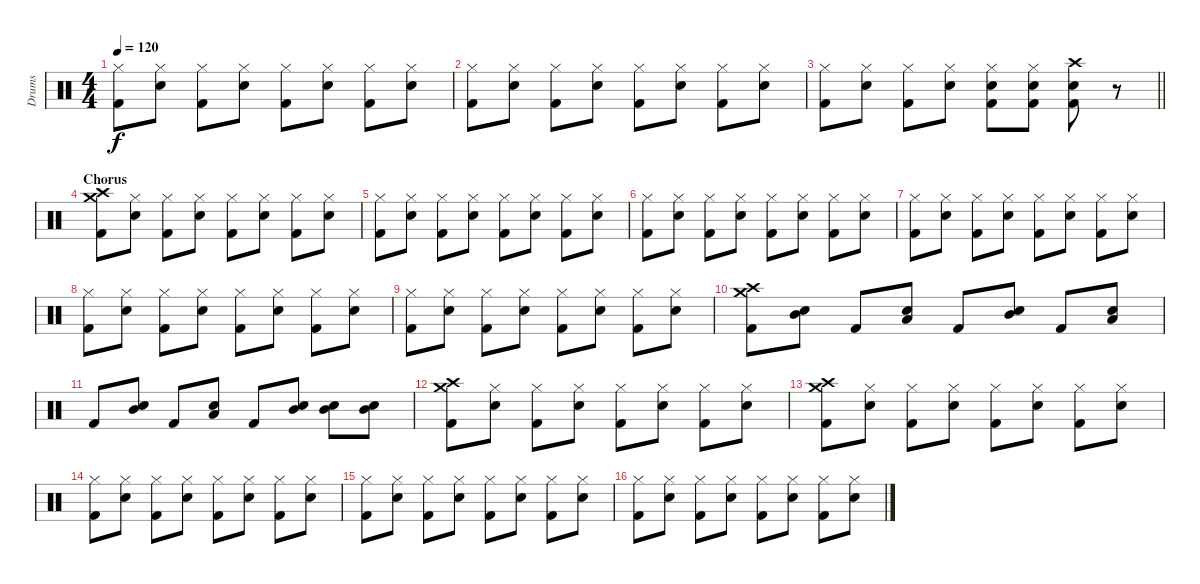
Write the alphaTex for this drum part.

\track ("Drums" "Drums") {instrument percussion}
\staff {score}
\articulation defaults
\ts (4 4)
\tempo 120
\clef neutral
\ks c
("Hi-Hat (closed)" "Kick (hit) 2").8{dy f} ("Hi-Hat (closed)" "Electric Snare (hit)").8 ("Hi-Hat (closed)" "Kick (hit) 2").8 ("Hi-Hat (closed)" "Electric Snare (hit)").8 ("Hi-Hat (closed)" "Kick (hit) 2").8 ("Hi-Hat (closed)" "Electric Snare (hit)").8 ("Hi-Hat (closed)" "Kick (hit) 2").8 ("Hi-Hat (closed)" "Electric Snare (hit)").8 |
("Hi-Hat (closed)" "Kick (hit) 2").8 ("Hi-Hat (closed)" "Electric Snare (hit)").8 ("Hi-Hat (closed)" "Kick (hit) 2").8 ("Hi-Hat (closed)" "Electric Snare (hit)").8 ("Hi-Hat (closed)" "Kick (hit) 2").8 ("Hi-Hat (closed)" "Electric Snare (hit)").8 ("Hi-Hat (closed)" "Kick (hit) 2").8 ("Hi-Hat (closed)" "Electric Snare (hit)").8 |
\barLineRight lightlight
("Hi-Hat (closed)" "Kick (hit) 2").8 ("Hi-Hat (closed)" "Electric Snare (hit)").8 ("Hi-Hat (closed)" "Kick (hit) 2").8 ("Hi-Hat (closed)" "Electric Snare (hit)").8 ("Hi-Hat (closed)" "Electric Snare (hit)" "Kick (hit) 2").8 ("Hi-Hat (closed)" "Electric Snare (hit)" "Kick (hit) 2").8 ("Crash high (hit)" "Electric Snare (hit)" "Kick (hit) 2").8 r.8 |
\section ("" "Chorus")
("Crash high (hit)" "Crash medium (hit)" "Kick (hit) 2").8 ("Hi-Hat (closed)" "Electric Snare (hit)").8 ("Hi-Hat (closed)" "Kick (hit) 2").8 ("Hi-Hat (closed)" "Electric Snare (hit)").8 ("Hi-Hat (closed)" "Kick (hit) 2").8 ("Hi-Hat (closed)" "Electric Snare (hit)").8 ("Hi-Hat (closed)" "Kick (hit) 2").8 ("Hi-Hat (closed)" "Electric Snare (hit)").8 |
("Hi-Hat (closed)" "Kick (hit) 2").8 ("Hi-Hat (closed)" "Electric Snare (hit)").8 ("Hi-Hat (closed)" "Kick (hit) 2").8 ("Hi-Hat (closed)" "Electric Snare (hit)").8 ("Hi-Hat (closed)" "Kick (hit) 2").8 ("Hi-Hat (closed)" "Electric Snare (hit)").8 ("Hi-Hat (closed)" "Kick (hit) 2").8 ("Hi-Hat (closed)" "Electric Snare (hit)").8 |
("Hi-Hat (closed)" "Kick (hit) 2").8 ("Hi-Hat (closed)" "Electric Snare (hit)").8 ("Hi-Hat (closed)" "Kick (hit) 2").8 ("Hi-Hat (closed)" "Electric Snare (hit)").8 ("Hi-Hat (closed)" "Kick (hit) 2").8 ("Hi-Hat (closed)" "Electric Snare (hit)").8 ("Hi-Hat (closed)" "Kick (hit) 2").8 ("Hi-Hat (closed)" "Electric Snare (hit)").8 |
("Hi-Hat (closed)" "Kick (hit) 2").8 ("Hi-Hat (closed)" "Electric Snare (hit)").8 ("Hi-Hat (closed)" "Kick (hit) 2").8 ("Hi-Hat (closed)" "Electric Snare (hit)").8 ("Hi-Hat (closed)" "Kick (hit) 2").8 ("Hi-Hat (closed)" "Electric Snare (hit)").8 ("Hi-Hat (closed)" "Kick (hit) 2").8 ("Hi-Hat (closed)" "Electric Snare (hit)").8 |
("Hi-Hat (closed)" "Kick (hit) 2").8 ("Hi-Hat (closed)" "Electric Snare (hit)").8 ("Hi-Hat (closed)" "Kick (hit) 2").8 ("Hi-Hat (closed)" "Electric Snare (hit)").8 ("Hi-Hat (closed)" "Kick (hit) 2").8 ("Hi-Hat (closed)" "Electric Snare (hit)").8 ("Hi-Hat (closed)" "Kick (hit) 2").8 ("Hi-Hat (closed)" "Electric Snare (hit)").8 |
("Hi-Hat (closed)" "Kick (hit) 2").8 ("Hi-Hat (closed)" "Electric Snare (hit)").8 ("Hi-Hat (closed)" "Kick (hit) 2").8 ("Hi-Hat (closed)" "Electric Snare (hit)").8 ("Hi-Hat (closed)" "Kick (hit) 2").8 ("Hi-Hat (closed)" "Electric Snare (hit)").8 ("Hi-Hat (closed)" "Kick (hit) 2").8 ("Hi-Hat (closed)" "Electric Snare (hit)").8 |
("Crash medium (hit)" "Crash high (hit)" "Kick (hit) 2").8 ("Mid Tom (hit)" "Electric Snare (hit)").8 "Kick (hit) 2".8 ("Low Tom (hit)" "Electric Snare (hit)").8 "Kick (hit) 2".8 ("Mid Tom (hit)" "Electric Snare (hit)").8 "Kick (hit) 2".8 ("Low Tom (hit)" "Electric Snare (hit)").8 |
"Kick (hit) 2".8 ("Mid Tom (hit)" "Electric Snare (hit)").8 "Kick (hit) 2".8 ("Low Tom (hit)" "Electric Snare (hit)").8 "Kick (hit) 2".8 ("Mid Tom (hit)" "Electric Snare (hit)").8 ("Mid Tom (hit)" "Electric Snare (hit)").8 ("Mid Tom (hit)" "Electric Snare (hit)").8 |
("Crash high (hit)" "Crash medium (hit)" "Kick (hit) 2").8 ("Hi-Hat (closed)" "Electric Snare (hit)").8 ("Hi-Hat (closed)" "Kick (hit) 2").8 ("Hi-Hat (closed)" "Electric Snare (hit)").8 ("Hi-Hat (closed)" "Kick (hit) 2").8 ("Hi-Hat (closed)" "Electric Snare (hit)").8 ("Hi-Hat (closed)" "Kick (hit) 2").8 ("Hi-Hat (closed)" "Electric Snare (hit)").8 |
("Crash high (hit)" "Crash medium (hit)" "Kick (hit) 2").8 ("Hi-Hat (closed)" "Electric Snare (hit)").8 ("Hi-Hat (closed)" "Kick (hit) 2").8 ("Hi-Hat (closed)" "Electric Snare (hit)").8 ("Hi-Hat (closed)" "Kick (hit) 2").8 ("Hi-Hat (closed)" "Electric Snare (hit)").8 ("Hi-Hat (closed)" "Kick (hit) 2").8 ("Hi-Hat (closed)" "Electric Snare (hit)").8 |
("Hi-Hat (closed)" "Kick (hit) 2").8 ("Hi-Hat (closed)" "Electric Snare (hit)").8 ("Hi-Hat (closed)" "Kick (hit) 2").8 ("Hi-Hat (closed)" "Electric Snare (hit)").8 ("Hi-Hat (closed)" "Kick (hit) 2").8 ("Hi-Hat (closed)" "Electric Snare (hit)").8 ("Hi-Hat (closed)" "Kick (hit) 2").8 ("Hi-Hat (closed)" "Electric Snare (hit)").8 |
("Hi-Hat (closed)" "Kick (hit) 2").8 ("Hi-Hat (closed)" "Electric Snare (hit)").8 ("Hi-Hat (closed)" "Kick (hit) 2").8 ("Hi-Hat (closed)" "Electric Snare (hit)").8 ("Hi-Hat (closed)" "Kick (hit) 2").8 ("Hi-Hat (closed)" "Electric Snare (hit)").8 ("Hi-Hat (closed)" "Kick (hit) 2").8 ("Hi-Hat (closed)" "Electric Snare (hit)").8 |
("Hi-Hat (closed)" "Kick (hit) 2").8 ("Hi-Hat (closed)" "Electric Snare (hit)").8 ("Hi-Hat (closed)" "Kick (hit) 2").8 ("Hi-Hat (closed)" "Electric Snare (hit)").8 ("Hi-Hat (closed)" "Kick (hit) 2").8 ("Hi-Hat (closed)" "Electric Snare (hit)").8 ("Hi-Hat (closed)" "Kick (hit) 2").8 ("Hi-Hat (closed)" "Electric Snare (hit)").8
